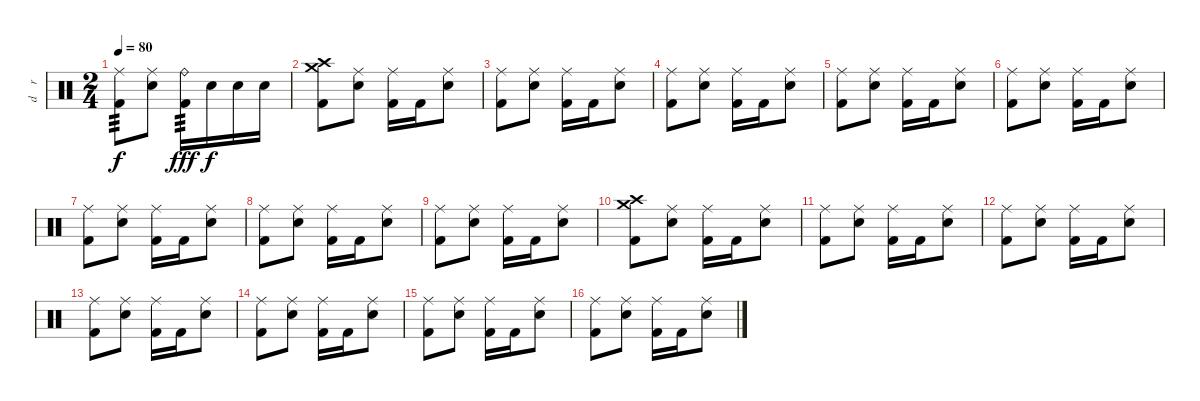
\track ("d    r     u    m    s" "d    r    ") {instrument percussion}
\staff {score}
\articulation defaults
\ts (2 4)
\tempo 80
\clef neutral
\ks c
("Ride (middle)" "Kick (hit) 2").8{tp 3 dy f} ("Ride (middle)" "Electric Snare (hit)").8 ("Ride (bell)" "Kick (hit) 2").16{tp 3 dy fff} "Electric Snare (hit)".16{dy f} "Electric Snare (hit)".16 "Electric Snare (hit)".16 |
("Crash high (hit)" "Crash medium (hit)" "Kick (hit) 2").8 ("Ride (middle)" "Electric Snare (hit)").8 ("Ride (middle)" "Kick (hit) 2").16 "Kick (hit) 2".16 ("Ride (middle)" "Electric Snare (hit)").8 |
("Ride (middle)" "Kick (hit) 2").8 ("Ride (middle)" "Electric Snare (hit)").8 ("Ride (middle)" "Kick (hit) 2").16 "Kick (hit) 2".16 ("Ride (middle)" "Electric Snare (hit)").8 |
("Ride (middle)" "Kick (hit) 2").8 ("Ride (middle)" "Electric Snare (hit)").8 ("Ride (middle)" "Kick (hit) 2").16 "Kick (hit) 2".16 ("Ride (middle)" "Electric Snare (hit)").8 |
("Ride (middle)" "Kick (hit) 2").8 ("Ride (middle)" "Electric Snare (hit)").8 ("Ride (middle)" "Kick (hit) 2").16 "Kick (hit) 2".16 ("Ride (middle)" "Electric Snare (hit)").8 |
("Ride (middle)" "Kick (hit) 2").8 ("Ride (middle)" "Electric Snare (hit)").8 ("Ride (middle)" "Kick (hit) 2").16 "Kick (hit) 2".16 ("Ride (middle)" "Electric Snare (hit)").8 |
("Ride (middle)" "Kick (hit) 2").8 ("Ride (middle)" "Electric Snare (hit)").8 ("Ride (middle)" "Kick (hit) 2").16 "Kick (hit) 2".16 ("Ride (middle)" "Electric Snare (hit)").8 |
("Ride (middle)" "Kick (hit) 2").8 ("Ride (middle)" "Electric Snare (hit)").8 ("Ride (middle)" "Kick (hit) 2").16 "Kick (hit) 2".16 ("Ride (middle)" "Electric Snare (hit)").8 |
("Ride (middle)" "Kick (hit) 2").8 ("Ride (middle)" "Electric Snare (hit)").8 ("Ride (middle)" "Kick (hit) 2").16 "Kick (hit) 2".16 ("Ride (middle)" "Electric Snare (hit)").8 |
("Crash high (hit)" "Crash medium (hit)" "Kick (hit) 2").8 ("Ride (middle)" "Electric Snare (hit)").8 ("Ride (middle)" "Kick (hit) 2").16 "Kick (hit) 2".16 ("Ride (middle)" "Electric Snare (hit)").8 |
("Ride (middle)" "Kick (hit) 2").8 ("Ride (middle)" "Electric Snare (hit)").8 ("Ride (middle)" "Kick (hit) 2").16 "Kick (hit) 2".16 ("Ride (middle)" "Electric Snare (hit)").8 |
("Ride (middle)" "Kick (hit) 2").8 ("Ride (middle)" "Electric Snare (hit)").8 ("Ride (middle)" "Kick (hit) 2").16 "Kick (hit) 2".16 ("Ride (middle)" "Electric Snare (hit)").8 |
("Ride (middle)" "Kick (hit) 2").8 ("Ride (middle)" "Electric Snare (hit)").8 ("Ride (middle)" "Kick (hit) 2").16 "Kick (hit) 2".16 ("Ride (middle)" "Electric Snare (hit)").8 |
("Ride (middle)" "Kick (hit) 2").8 ("Ride (middle)" "Electric Snare (hit)").8 ("Ride (middle)" "Kick (hit) 2").16 "Kick (hit) 2".16 ("Ride (middle)" "Electric Snare (hit)").8 |
("Ride (middle)" "Kick (hit) 2").8 ("Ride (middle)" "Electric Snare (hit)").8 ("Ride (middle)" "Kick (hit) 2").16 "Kick (hit) 2".16 ("Ride (middle)" "Electric Snare (hit)").8 |
("Ride (middle)" "Kick (hit) 2").8 ("Ride (middle)" "Electric Snare (hit)").8 ("Ride (middle)" "Kick (hit) 2").16 "Kick (hit) 2".16 ("Ride (middle)" "Electric Snare (hit)").8
